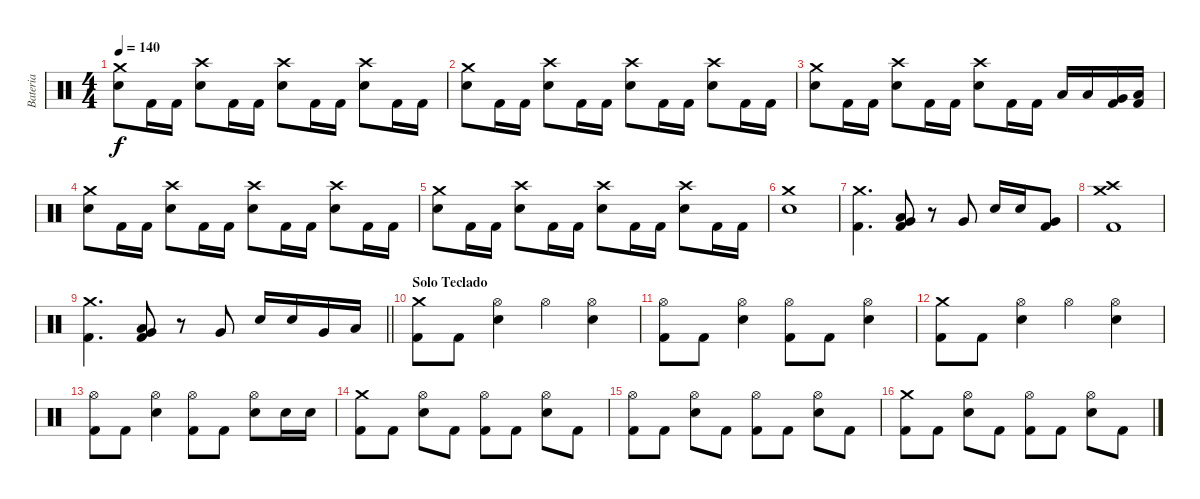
\track ("Bateria" "Bateria") {instrument percussion}
\staff {score}
\articulation defaults
\ts (4 4)
\tempo 140
\clef neutral
\ks c
("Crash medium (hit)" "Snare (hit) 2").8{dy f} "Kick (hit) 2".16 "Kick (hit) 2".16 ("Crash high (hit)" "Snare (hit) 2").8 "Kick (hit) 2".16 "Kick (hit) 2".16 ("Crash high (hit)" "Snare (hit) 2").8 "Kick (hit) 2".16 "Kick (hit) 2".16 ("Crash high (hit)" "Snare (hit) 2").8 "Kick (hit) 2".16 "Kick (hit) 2".16 |
("Crash medium (hit)" "Snare (hit) 2").8 "Kick (hit) 2".16 "Kick (hit) 2".16 ("Crash high (hit)" "Snare (hit) 2").8 "Kick (hit) 2".16 "Kick (hit) 2".16 ("Crash high (hit)" "Snare (hit) 2").8 "Kick (hit) 2".16 "Kick (hit) 2".16 ("Crash high (hit)" "Snare (hit) 2").8 "Kick (hit) 2".16 "Kick (hit) 2".16 |
("Crash medium (hit)" "Snare (hit) 2").8 "Kick (hit) 2".16 "Kick (hit) 2".16 ("Crash high (hit)" "Snare (hit) 2").8 "Kick (hit) 2".16 "Kick (hit) 2".16 ("Crash high (hit)" "Snare (hit) 2").8 "Kick (hit) 2".16 "Kick (hit) 2".16 "Low Tom (hit)".16 "Low Tom (hit)".16 ("Very Low Tom (hit)" "Kick (hit) 2").16 ("Low Floor Tom (hit)" "Kick (hit) 2").16 |
("Crash medium (hit)" "Snare (hit) 2").8 "Kick (hit) 2".16 "Kick (hit) 2".16 ("Crash high (hit)" "Snare (hit) 2").8 "Kick (hit) 2".16 "Kick (hit) 2".16 ("Crash high (hit)" "Snare (hit) 2").8 "Kick (hit) 2".16 "Kick (hit) 2".16 ("Crash high (hit)" "Snare (hit) 2").8 "Kick (hit) 2".16 "Kick (hit) 2".16 |
("Crash medium (hit)" "Snare (hit) 2").8 "Kick (hit) 2".16 "Kick (hit) 2".16 ("Crash high (hit)" "Snare (hit) 2").8 "Kick (hit) 2".16 "Kick (hit) 2".16 ("Crash high (hit)" "Snare (hit) 2").8 "Kick (hit) 2".16 "Kick (hit) 2".16 ("Crash high (hit)" "Snare (hit) 2").8 "Kick (hit) 2".16 "Kick (hit) 2".16 |
("Crash medium (hit)" "Snare (hit) 2").1 |
("Crash medium (hit)" "Kick (hit) 2").4{d} ("Low Tom (hit)" "Very Low Tom (hit)" "Kick (hit) 2").8 r.8 "Very Low Tom (hit)".8 "Snare (hit) 2".16 "Snare (hit) 2".16 ("Very Low Tom (hit)" "Kick (hit) 2").8 |
("Crash medium (hit)" "Crash high (hit)" "Kick (hit) 2").1 |
\barLineRight lightlight
("Crash medium (hit)" "Kick (hit) 2").4{d} ("Low Tom (hit)" "Very Low Tom (hit)" "Kick (hit) 2").8 r.8 "Very Low Tom (hit)".8 "Snare (hit) 2".16 "Snare (hit) 2".16 "Very Low Tom (hit)".16 "Low Floor Tom (hit)".16 |
\section ("" "Solo Teclado")
("Crash medium (hit)" "Kick (hit) 2").8 "Kick (hit) 2".8 ("Hi-Hat (open)" "Snare (hit) 2").4 "Hi-Hat (open)".4 ("Hi-Hat (open)" "Snare (hit) 2").4 |
("Hi-Hat (open)" "Kick (hit) 2").8 "Kick (hit) 2".8 ("Hi-Hat (open)" "Snare (hit) 2").4 ("Hi-Hat (open)" "Kick (hit) 2").8 "Kick (hit) 2".8 ("Hi-Hat (open)" "Snare (hit) 2").4 |
("Crash medium (hit)" "Kick (hit) 2").8 "Kick (hit) 2".8 ("Hi-Hat (open)" "Snare (hit) 2").4 "Hi-Hat (open)".4 ("Hi-Hat (open)" "Snare (hit) 2").4 |
("Hi-Hat (open)" "Kick (hit) 2").8 "Kick (hit) 2".8 ("Hi-Hat (open)" "Snare (hit) 2").4 ("Hi-Hat (open)" "Kick (hit) 2").8 "Kick (hit) 2".8 ("Hi-Hat (open)" "Snare (hit) 2").8 "Snare (hit) 2".16 "Snare (hit) 2".16 |
("Crash medium (hit)" "Kick (hit) 2").8 "Kick (hit) 2".8 ("Hi-Hat (open)" "Snare (hit) 2").8 "Kick (hit) 2".8 ("Hi-Hat (open)" "Kick (hit) 2").8 "Kick (hit) 2".8 ("Hi-Hat (open)" "Snare (hit) 2").8 "Kick (hit) 2".8 |
("Hi-Hat (open)" "Kick (hit) 2").8 "Kick (hit) 2".8 ("Hi-Hat (open)" "Snare (hit) 2").8 "Kick (hit) 2".8 ("Hi-Hat (open)" "Kick (hit) 2").8 "Kick (hit) 2".8 ("Hi-Hat (open)" "Snare (hit) 2").8 "Kick (hit) 2".8 |
("Crash medium (hit)" "Kick (hit) 2").8 "Kick (hit) 2".8 ("Hi-Hat (open)" "Snare (hit) 2").8 "Kick (hit) 2".8 ("Hi-Hat (open)" "Kick (hit) 2").8 "Kick (hit) 2".8 ("Hi-Hat (open)" "Snare (hit) 2").8 "Kick (hit) 2".8
